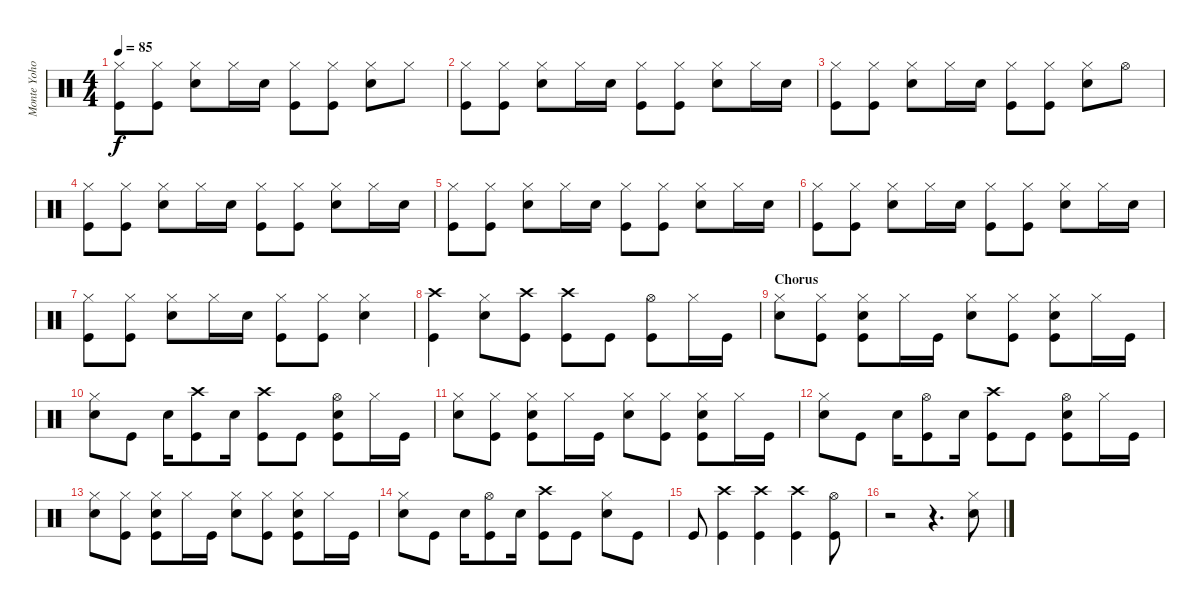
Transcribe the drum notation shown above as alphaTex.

\track ("Monte Yoho - Drums" "Monte Yoho") {instrument percussion}
\staff {score}
\articulation defaults
\ts (4 4)
\tempo 85
\clef neutral
\ks c
("Hi-Hat (closed)" "Kick (hit)").8{dy f} ("Hi-Hat (closed)" "Kick (hit)").8 ("Hi-Hat (closed)" "Snare (hit) 2").8 "Hi-Hat (closed)".16 "Snare (hit) 2".16 ("Hi-Hat (closed)" "Kick (hit)").8 ("Hi-Hat (closed)" "Kick (hit)").8 ("Hi-Hat (closed)" "Snare (hit) 2").8 "Hi-Hat (closed)".8 |
("Hi-Hat (closed)" "Kick (hit)").8 ("Hi-Hat (closed)" "Kick (hit)").8 ("Hi-Hat (closed)" "Snare (hit) 2").8 "Hi-Hat (closed)".16 "Snare (hit) 2".16 ("Hi-Hat (closed)" "Kick (hit)").8 ("Hi-Hat (closed)" "Kick (hit)").8 ("Hi-Hat (closed)" "Snare (hit) 2").8 "Hi-Hat (closed)".16 "Snare (hit) 2".16 |
("Hi-Hat (closed)" "Kick (hit)").8 ("Hi-Hat (closed)" "Kick (hit)").8 ("Hi-Hat (closed)" "Snare (hit) 2").8 "Hi-Hat (closed)".16 "Snare (hit) 2".16 ("Hi-Hat (closed)" "Kick (hit)").8 ("Hi-Hat (closed)" "Kick (hit)").8 ("Hi-Hat (closed)" "Snare (hit) 2").8 "Hi-Hat (open)".8 |
("Hi-Hat (closed)" "Kick (hit)").8 ("Hi-Hat (closed)" "Kick (hit)").8 ("Hi-Hat (closed)" "Snare (hit) 2").8 "Hi-Hat (closed)".16 "Snare (hit) 2".16 ("Hi-Hat (closed)" "Kick (hit)").8 ("Hi-Hat (closed)" "Kick (hit)").8 ("Hi-Hat (closed)" "Snare (hit) 2").8 "Hi-Hat (closed)".16 "Snare (hit) 2".16 |
("Hi-Hat (closed)" "Kick (hit)").8 ("Hi-Hat (closed)" "Kick (hit)").8 ("Hi-Hat (closed)" "Snare (hit) 2").8 "Hi-Hat (closed)".16 "Snare (hit) 2".16 ("Hi-Hat (closed)" "Kick (hit)").8 ("Hi-Hat (closed)" "Kick (hit)").8 ("Hi-Hat (closed)" "Snare (hit) 2").8 "Hi-Hat (closed)".16 "Snare (hit) 2".16 |
("Hi-Hat (closed)" "Kick (hit)").8 ("Hi-Hat (closed)" "Kick (hit)").8 ("Hi-Hat (closed)" "Snare (hit) 2").8 "Hi-Hat (closed)".16 "Snare (hit) 2".16 ("Hi-Hat (closed)" "Kick (hit)").8 ("Hi-Hat (closed)" "Kick (hit)").8 ("Hi-Hat (closed)" "Snare (hit) 2").8 "Hi-Hat (closed)".16 "Snare (hit) 2".16 |
("Hi-Hat (closed)" "Kick (hit)").8 ("Hi-Hat (closed)" "Kick (hit)").8 ("Hi-Hat (closed)" "Snare (hit) 2").8 "Hi-Hat (closed)".16 "Snare (hit) 2".16 ("Hi-Hat (closed)" "Kick (hit)").8 ("Hi-Hat (closed)" "Kick (hit)").8 ("Hi-Hat (closed)" "Snare (hit) 2").4 |
("Crash high (hit)" "Kick (hit)").4 ("Hi-Hat (closed)" "Snare (hit) 2").8 ("Crash high (hit)" "Kick (hit)").8 ("Crash high (hit)" "Kick (hit)").8 "Kick (hit)".8 ("Hi-Hat (open)" "Kick (hit)").8 "Hi-Hat (closed)".16 "Kick (hit)".16 |
\section ("" "Chorus")
("Hi-Hat (closed)" "Snare (hit) 2").8 ("Hi-Hat (closed)" "Kick (hit)").8 ("Hi-Hat (closed)" "Snare (hit) 2" "Kick (hit)").8 "Hi-Hat (closed)".16 "Kick (hit)".16 ("Hi-Hat (closed)" "Snare (hit) 2").8 ("Hi-Hat (closed)" "Kick (hit)").8 ("Hi-Hat (closed)" "Snare (hit) 2" "Kick (hit)").8 "Hi-Hat (closed)".16 "Kick (hit)".16 |
("Hi-Hat (closed)" "Snare (hit) 2").8 "Kick (hit)".8 "Snare (hit) 2".16 ("Crash high (hit)" "Kick (hit)").8 "Snare (hit) 2".16 ("Crash high (hit)" "Kick (hit)").8 "Kick (hit)".8 ("Hi-Hat (open)" "Snare (hit) 2" "Kick (hit)").8 "Hi-Hat (closed)".16 "Kick (hit)".16 |
("Hi-Hat (closed)" "Snare (hit) 2").8 ("Hi-Hat (closed)" "Kick (hit)").8 ("Hi-Hat (closed)" "Snare (hit) 2" "Kick (hit)").8 "Hi-Hat (closed)".16 "Kick (hit)".16 ("Hi-Hat (closed)" "Snare (hit) 2").8 ("Hi-Hat (closed)" "Kick (hit)").8 ("Hi-Hat (closed)" "Snare (hit) 2" "Kick (hit)").8 "Hi-Hat (closed)".16 "Kick (hit)".16 |
("Hi-Hat (closed)" "Snare (hit) 2").8 "Kick (hit)".8 "Snare (hit) 2".16 ("Hi-Hat (open)" "Kick (hit)").8 "Snare (hit) 2".16 ("Crash high (hit)" "Kick (hit)").8 "Kick (hit)".8 ("Hi-Hat (open)" "Snare (hit) 2" "Kick (hit)").8 "Hi-Hat (closed)".16 "Kick (hit)".16 |
("Hi-Hat (closed)" "Snare (hit) 2").8 ("Hi-Hat (closed)" "Kick (hit)").8 ("Hi-Hat (closed)" "Snare (hit) 2" "Kick (hit)").8 "Hi-Hat (closed)".16 "Kick (hit)".16 ("Hi-Hat (closed)" "Snare (hit) 2").8 ("Hi-Hat (closed)" "Kick (hit)").8 ("Hi-Hat (closed)" "Snare (hit) 2" "Kick (hit)").8 "Hi-Hat (closed)".16 "Kick (hit)".16 |
("Hi-Hat (closed)" "Snare (hit) 2").8 "Kick (hit)".8 "Snare (hit) 2".16 ("Hi-Hat (open)" "Kick (hit)").8 "Snare (hit) 2".16 ("Crash high (hit)" "Kick (hit)").8 "Kick (hit)".8 ("Hi-Hat (closed)" "Snare (hit) 2").8 "Kick (hit)".8 |
"Kick (hit)".8 ("Crash high (hit)" "Kick (hit)").4 ("Crash high (hit)" "Kick (hit)").4 ("Crash high (hit)" "Kick (hit)").4 ("Hi-Hat (open)" "Kick (hit)").8 |
r.2 r.4{d} ("Hi-Hat (closed)" "Snare (hit) 2").8
